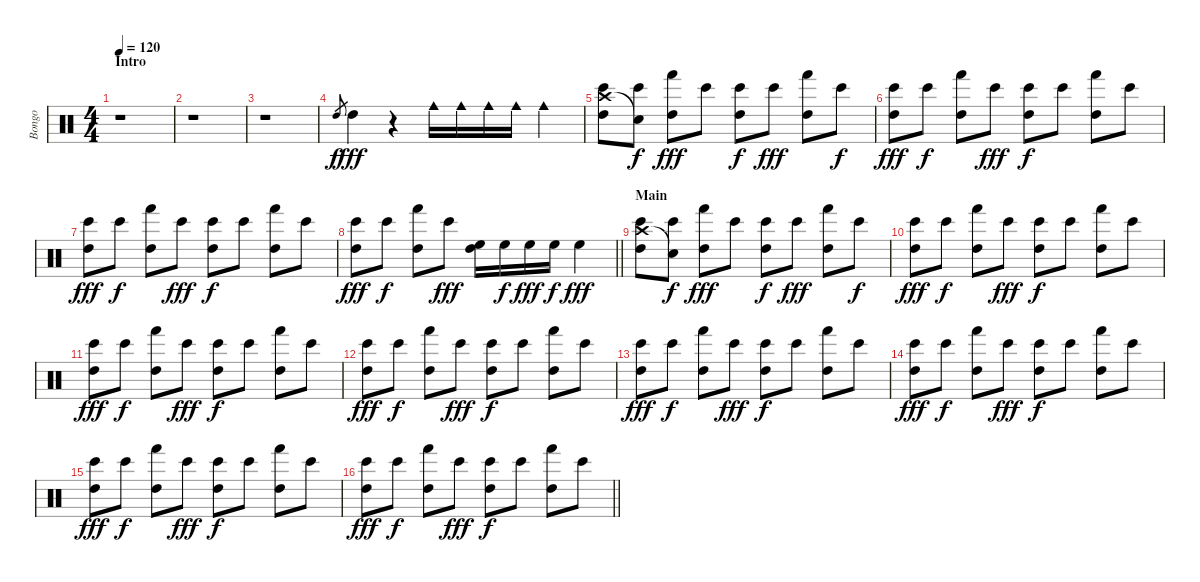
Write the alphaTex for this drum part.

\track ("Bongo" "Bongo") {instrument percussion}
\staff {score}
\articulation defaults
\ts (4 4)
\section ("" "Intro")
\tempo 120
\clef neutral
\ks c
r.1{dy f} |
r.1 |
r.1 |
"High Tom (hit)".8{gr} "High Tom (hit)".4{dy fff} r.4 "Cowbell medium (hit)".16 "Cowbell medium (hit)".16 "Cowbell medium (hit)".16 "Cowbell medium (hit)".16 "Cowbell medium (hit)".4 |
("Crash high (hit)" "Bongo High (hit)" "High Tom (hit)").8 ("Snare (hit)"{t} "Bongo High (hit)").8{dy f} ("Hand (hit)" "High Tom (hit)").8{dy fff} "Bongo High (hit)".8 ("Bongo High (hit)" "High Tom (hit)").8{dy f} "Bongo High (hit)".8{dy fff} ("Hand (hit)" "High Tom (hit)").8 "Bongo High (hit)".8{dy f} |
("Bongo High (hit)" "High Tom (hit)").8{dy fff} "Bongo High (hit)".8{dy f} ("Hand (hit)" "High Tom (hit)").8 "Bongo High (hit)".8{dy fff} ("Bongo High (hit)" "High Tom (hit)").8{dy f} "Bongo High (hit)".8 ("Hand (hit)" "High Tom (hit)").8 "Bongo High (hit)".8 |
("Bongo High (hit)" "High Tom (hit)").8{dy fff} "Bongo High (hit)".8{dy f} ("Hand (hit)" "High Tom (hit)").8 "Bongo High (hit)".8{dy fff} ("Bongo High (hit)" "High Tom (hit)").8{dy f} "Bongo High (hit)".8 ("Hand (hit)" "High Tom (hit)").8 "Bongo High (hit)".8 |
\barLineRight lightlight
("Bongo High (hit)" "High Tom (hit)").8{dy fff} "Bongo High (hit)".8{dy f} ("Hand (hit)" "High Tom (hit)").8 "Bongo High (hit)".8{dy fff} ("High Floor Tom (hit)" "High Tom (hit)").16 "High Floor Tom (hit)".16{dy f} "High Floor Tom (hit)".16{dy fff} "High Floor Tom (hit)".16{dy f} "High Floor Tom (hit)".4{dy fff} |
\section ("" "Main")
("Crash high (hit)" "Bongo High (hit)" "High Tom (hit)").8 ("Snare (hit)"{t} "Bongo High (hit)").8{dy f} ("Hand (hit)" "High Tom (hit)").8{dy fff} "Bongo High (hit)".8 ("Bongo High (hit)" "High Tom (hit)").8{dy f} "Bongo High (hit)".8{dy fff} ("Hand (hit)" "High Tom (hit)").8 "Bongo High (hit)".8{dy f} |
("Bongo High (hit)" "High Tom (hit)").8{dy fff} "Bongo High (hit)".8{dy f} ("Hand (hit)" "High Tom (hit)").8 "Bongo High (hit)".8{dy fff} ("Bongo High (hit)" "High Tom (hit)").8{dy f} "Bongo High (hit)".8 ("Hand (hit)" "High Tom (hit)").8 "Bongo High (hit)".8 |
("Bongo High (hit)" "High Tom (hit)").8{dy fff} "Bongo High (hit)".8{dy f} ("Hand (hit)" "High Tom (hit)").8 "Bongo High (hit)".8{dy fff} ("Bongo High (hit)" "High Tom (hit)").8{dy f} "Bongo High (hit)".8 ("Hand (hit)" "High Tom (hit)").8 "Bongo High (hit)".8 |
("Bongo High (hit)" "High Tom (hit)").8{dy fff} "Bongo High (hit)".8{dy f} ("Hand (hit)" "High Tom (hit)").8 "Bongo High (hit)".8{dy fff} ("Bongo High (hit)" "High Tom (hit)").8{dy f} "Bongo High (hit)".8 ("Hand (hit)" "High Tom (hit)").8 "Bongo High (hit)".8 |
("Bongo High (hit)" "High Tom (hit)").8{dy fff} "Bongo High (hit)".8{dy f} ("Hand (hit)" "High Tom (hit)").8 "Bongo High (hit)".8{dy fff} ("Bongo High (hit)" "High Tom (hit)").8{dy f} "Bongo High (hit)".8 ("Hand (hit)" "High Tom (hit)").8 "Bongo High (hit)".8 |
("Bongo High (hit)" "High Tom (hit)").8{dy fff} "Bongo High (hit)".8{dy f} ("Hand (hit)" "High Tom (hit)").8 "Bongo High (hit)".8{dy fff} ("Bongo High (hit)" "High Tom (hit)").8{dy f} "Bongo High (hit)".8 ("Hand (hit)" "High Tom (hit)").8 "Bongo High (hit)".8 |
("Bongo High (hit)" "High Tom (hit)").8{dy fff} "Bongo High (hit)".8{dy f} ("Hand (hit)" "High Tom (hit)").8 "Bongo High (hit)".8{dy fff} ("Bongo High (hit)" "High Tom (hit)").8{dy f} "Bongo High (hit)".8 ("Hand (hit)" "High Tom (hit)").8 "Bongo High (hit)".8 |
\barLineRight lightlight
("Bongo High (hit)" "High Tom (hit)").8{dy fff} "Bongo High (hit)".8{dy f} ("Hand (hit)" "High Tom (hit)").8 "Bongo High (hit)".8{dy fff} ("Bongo High (hit)" "High Tom (hit)").8{dy f} "Bongo High (hit)".8 ("Hand (hit)" "High Tom (hit)").8 "Bongo High (hit)".8
